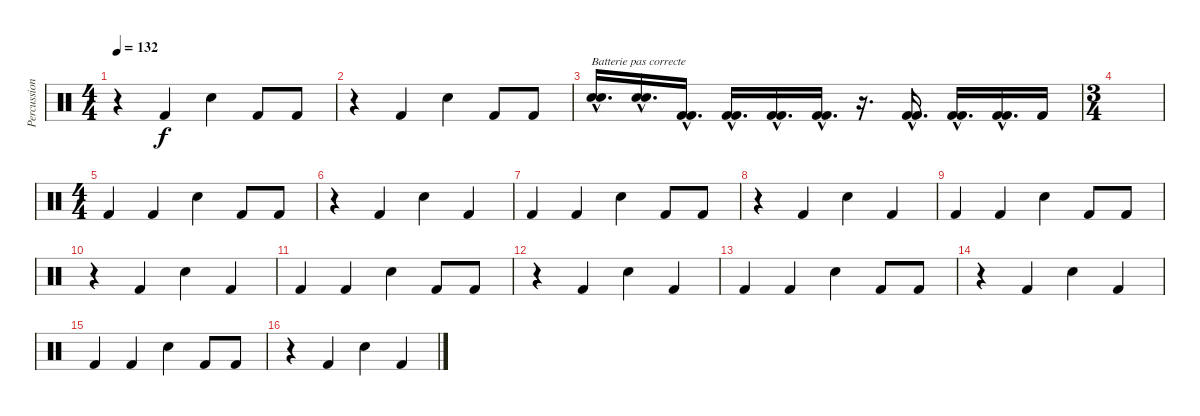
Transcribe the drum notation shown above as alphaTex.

\track ("Percussions" "Percussion") {instrument percussion}
\staff {score}
\articulation defaults
\ts (4 4)
\tempo 132
\clef neutral
\ks c
r.4{dy f} "Kick (hit) 2".4 "Electric Snare (hit)".4 "Kick (hit) 2".8 "Kick (hit) 2".8 |
r.4 "Kick (hit) 2".4 "Electric Snare (hit)".4 "Kick (hit) 2".8 "Kick (hit) 2".8 |
("Electric Snare (hit)"{hac} "Electric Snare (hit)"{hac}).16{d txt "Batterie pas correcte"} ("Electric Snare (hit)"{hac} "Electric Snare (hit)"{hac}).16{d} ("Kick (hit) 2"{hac} "Kick (hit) 2"{hac}).16{d} ("Kick (hit) 2"{hac} "Kick (hit) 2"{hac}).16{d} ("Kick (hit) 2"{hac} "Kick (hit) 2"{hac}).16{d} ("Kick (hit) 2"{hac} "Kick (hit) 2"{hac}).16{d} r.16{d} ("Kick (hit) 2"{hac} "Kick (hit) 2"{hac}).16{d} ("Kick (hit) 2"{hac} "Kick (hit) 2"{hac}).16{d} ("Kick (hit) 2"{hac} "Kick (hit) 2"{hac}).16{d} "Kick (hit) 2".16 |
\ts (3 4)
|
\ts (4 4)
"Kick (hit) 2".4 "Kick (hit) 2".4 "Electric Snare (hit)".4 "Kick (hit) 2".8 "Kick (hit) 2".8 |
r.4 "Kick (hit) 2".4 "Electric Snare (hit)".4 "Kick (hit) 2".4 |
"Kick (hit) 2".4 "Kick (hit) 2".4 "Electric Snare (hit)".4 "Kick (hit) 2".8 "Kick (hit) 2".8 |
r.4 "Kick (hit) 2".4 "Electric Snare (hit)".4 "Kick (hit) 2".4 |
"Kick (hit) 2".4 "Kick (hit) 2".4 "Electric Snare (hit)".4 "Kick (hit) 2".8 "Kick (hit) 2".8 |
r.4 "Kick (hit) 2".4 "Electric Snare (hit)".4 "Kick (hit) 2".4 |
"Kick (hit) 2".4 "Kick (hit) 2".4 "Electric Snare (hit)".4 "Kick (hit) 2".8 "Kick (hit) 2".8 |
r.4 "Kick (hit) 2".4 "Electric Snare (hit)".4 "Kick (hit) 2".4 |
"Kick (hit) 2".4 "Kick (hit) 2".4 "Electric Snare (hit)".4 "Kick (hit) 2".8 "Kick (hit) 2".8 |
r.4 "Kick (hit) 2".4 "Electric Snare (hit)".4 "Kick (hit) 2".4 |
"Kick (hit) 2".4 "Kick (hit) 2".4 "Electric Snare (hit)".4 "Kick (hit) 2".8 "Kick (hit) 2".8 |
r.4 "Kick (hit) 2".4 "Electric Snare (hit)".4 "Kick (hit) 2".4
